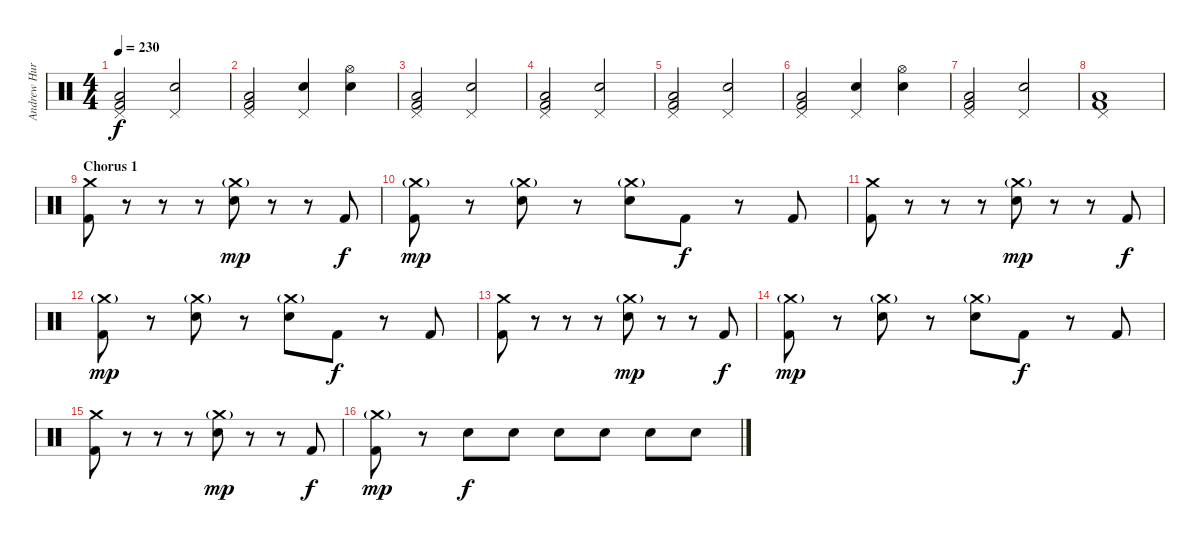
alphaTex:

\track ("Andrew Hurley (Drums)" "Andrew Hur") {instrument percussion}
\staff {score}
\articulation defaults
\ts (4 4)
\tempo 230
\clef neutral
\ks c
("Pedal Hi-Hat (hit)" "Low Floor Tom (hit)" "Kick (hit) 2").2{dy f} ("Pedal Hi-Hat (hit)" "Electric Snare (hit)").2 |
("Pedal Hi-Hat (hit)" "Low Floor Tom (hit)" "Kick (hit) 2").2 ("Pedal Hi-Hat (hit)" "Electric Snare (hit)").4 ("Hi-Hat (open)" "Electric Snare (hit)").4 |
("Pedal Hi-Hat (hit)" "Low Floor Tom (hit)" "Kick (hit) 2").2 ("Pedal Hi-Hat (hit)" "Electric Snare (hit)").2 |
("Pedal Hi-Hat (hit)" "Low Floor Tom (hit)" "Kick (hit) 2").2 ("Pedal Hi-Hat (hit)" "Electric Snare (hit)").2 |
("Pedal Hi-Hat (hit)" "Low Floor Tom (hit)" "Kick (hit) 2").2 ("Pedal Hi-Hat (hit)" "Electric Snare (hit)").2 |
("Pedal Hi-Hat (hit)" "Low Floor Tom (hit)" "Kick (hit) 2").2 ("Pedal Hi-Hat (hit)" "Electric Snare (hit)").4 ("Hi-Hat (open)" "Electric Snare (hit)").4 |
("Pedal Hi-Hat (hit)" "Low Floor Tom (hit)" "Kick (hit) 2").2 ("Pedal Hi-Hat (hit)" "Electric Snare (hit)").2 |
("Pedal Hi-Hat (hit)" "Low Floor Tom (hit)" "Kick (hit) 2").1 |
\section ("" "Chorus 1")
("Crash medium (hit)" "Kick (hit) 2").8 r.8 r.8 r.8 ("Crash medium (hit)"{g} "Electric Snare (hit)").8{dy mp} r.8 r.8 "Kick (hit) 2".8{dy f} |
("Crash medium (hit)"{g} "Kick (hit) 2").8{dy mp} r.8 ("Crash medium (hit)"{g} "Electric Snare (hit)").8 r.8 ("Crash medium (hit)"{g} "Electric Snare (hit)").8 "Kick (hit) 2".8{dy f} r.8 "Kick (hit) 2".8 |
("Crash medium (hit)" "Kick (hit) 2").8 r.8 r.8 r.8 ("Crash medium (hit)"{g} "Electric Snare (hit)").8{dy mp} r.8 r.8 "Kick (hit) 2".8{dy f} |
("Crash medium (hit)"{g} "Kick (hit) 2").8{dy mp} r.8 ("Crash medium (hit)"{g} "Electric Snare (hit)").8 r.8 ("Crash medium (hit)"{g} "Electric Snare (hit)").8 "Kick (hit) 2".8{dy f} r.8 "Kick (hit) 2".8 |
("Crash medium (hit)" "Kick (hit) 2").8 r.8 r.8 r.8 ("Crash medium (hit)"{g} "Electric Snare (hit)").8{dy mp} r.8 r.8 "Kick (hit) 2".8{dy f} |
("Crash medium (hit)"{g} "Kick (hit) 2").8{dy mp} r.8 ("Crash medium (hit)"{g} "Electric Snare (hit)").8 r.8 ("Crash medium (hit)"{g} "Electric Snare (hit)").8 "Kick (hit) 2".8{dy f} r.8 "Kick (hit) 2".8 |
("Crash medium (hit)" "Kick (hit) 2").8 r.8 r.8 r.8 ("Crash medium (hit)"{g} "Electric Snare (hit)").8{dy mp} r.8 r.8 "Kick (hit) 2".8{dy f} |
("Crash medium (hit)"{g} "Kick (hit) 2").8{dy mp} r.8 "Electric Snare (hit)".8{dy f} "Electric Snare (hit)".8 "Electric Snare (hit)".8 "Electric Snare (hit)".8 "Electric Snare (hit)".8 "Electric Snare (hit)".8
